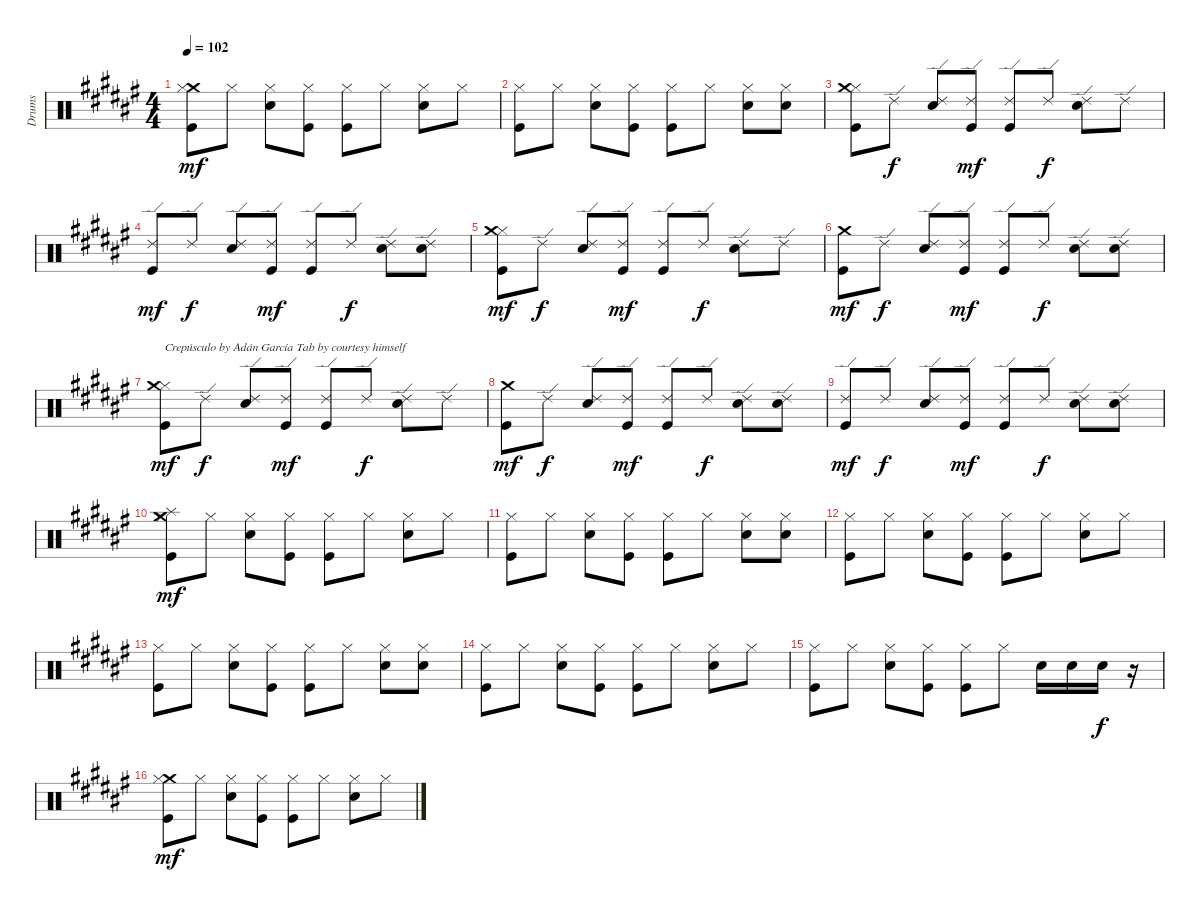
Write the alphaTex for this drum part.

\track ("Drums" "Drums") {instrument percussion}
\staff {score}
\articulation defaults
\ts (4 4)
\tempo 102
\clef neutral
\ks f#
("Crash medium (hit)" "Kick (hit)" "Hi-Hat (closed)").8{dy mf} "Hi-Hat (closed)".8 ("Electric Snare (hit)" "Hi-Hat (closed)").8 ("Kick (hit)" "Hi-Hat (closed)").8 ("Kick (hit)" "Hi-Hat (closed)").8 "Hi-Hat (closed)".8 ("Electric Snare (hit)" "Hi-Hat (closed)").8 "Hi-Hat (closed)".8 |
("Kick (hit)" "Hi-Hat (closed)").8 "Hi-Hat (closed)".8 ("Electric Snare (hit)" "Hi-Hat (closed)").8 ("Kick (hit)" "Hi-Hat (closed)").8 ("Kick (hit)" "Hi-Hat (closed)").8 "Hi-Hat (closed)".8 ("Electric Snare (hit)" "Hi-Hat (closed)").8 ("Electric Snare (hit)" "Hi-Hat (closed)").8 |
("Kick (hit)" "Hi-Hat (closed)" "Crash medium (hit)").8 "Ride (edge) 2".8{dy f} ("Electric Snare (hit)" "Ride (edge) 2").8 ("Kick (hit)" "Ride (edge) 2").8{dy mf} ("Kick (hit)" "Ride (edge) 2").8 "Ride (edge) 2".8{dy f} ("Electric Snare (hit)" "Ride (edge) 2").8 "Ride (edge) 2".8 |
("Kick (hit)" "Ride (edge) 2").8{dy mf} "Ride (edge) 2".8{dy f} ("Electric Snare (hit)" "Ride (edge) 2").8 ("Kick (hit)" "Ride (edge) 2").8{dy mf} ("Kick (hit)" "Ride (edge) 2").8 "Ride (edge) 2".8{dy f} ("Electric Snare (hit)" "Ride (edge) 2").8 ("Electric Snare (hit)" "Ride (edge) 2").8 |
("Kick (hit)" "Hi-Hat (closed)" "Crash medium (hit)").8{dy mf} "Ride (edge) 2".8{dy f} ("Electric Snare (hit)" "Ride (edge) 2").8 ("Kick (hit)" "Ride (edge) 2").8{dy mf} ("Kick (hit)" "Ride (edge) 2").8 "Ride (edge) 2".8{dy f} ("Electric Snare (hit)" "Ride (edge) 2").8 "Ride (edge) 2".8 |
("Kick (hit)" "Crash medium (hit)").8{dy mf} "Ride (edge) 2".8{dy f} ("Electric Snare (hit)" "Ride (edge) 2").8 ("Kick (hit)" "Ride (edge) 2").8{dy mf} ("Kick (hit)" "Ride (edge) 2").8 "Ride (edge) 2".8{dy f} ("Electric Snare (hit)" "Ride (edge) 2").8 ("Electric Snare (hit)" "Ride (edge) 2").8 |
("Kick (hit)" "Hi-Hat (closed)" "Crash medium (hit)").8{txt "Crepúsculo by Adán García Tab by courtesy himself" dy mf} "Ride (edge) 2".8{dy f} ("Electric Snare (hit)" "Ride (edge) 2").8 ("Kick (hit)" "Ride (edge) 2").8{dy mf} ("Kick (hit)" "Ride (edge) 2").8 "Ride (edge) 2".8{dy f} ("Electric Snare (hit)" "Ride (edge) 2").8 "Ride (edge) 2".8 |
("Kick (hit)" "Crash medium (hit)").8{dy mf} "Ride (edge) 2".8{dy f} ("Electric Snare (hit)" "Ride (edge) 2").8 ("Kick (hit)" "Ride (edge) 2").8{dy mf} ("Kick (hit)" "Ride (edge) 2").8 "Ride (edge) 2".8{dy f} ("Electric Snare (hit)" "Ride (edge) 2").8 ("Electric Snare (hit)" "Ride (edge) 2").8 |
("Kick (hit)" "Ride (edge) 2").8{dy mf} "Ride (edge) 2".8{dy f} ("Electric Snare (hit)" "Ride (edge) 2").8 ("Kick (hit)" "Ride (edge) 2").8{dy mf} ("Kick (hit)" "Ride (edge) 2").8 "Ride (edge) 2".8{dy f} ("Electric Snare (hit)" "Ride (edge) 2").8 ("Electric Snare (hit)" "Ride (edge) 2").8 |
("Splash (hit)" "Crash medium (hit)" "Kick (hit)" "Hi-Hat (closed)").8{dy mf} "Hi-Hat (closed)".8 ("Electric Snare (hit)" "Hi-Hat (closed)").8 ("Kick (hit)" "Hi-Hat (closed)").8 ("Kick (hit)" "Hi-Hat (closed)").8 "Hi-Hat (closed)".8 ("Electric Snare (hit)" "Hi-Hat (closed)").8 "Hi-Hat (closed)".8 |
("Kick (hit)" "Hi-Hat (closed)").8 "Hi-Hat (closed)".8 ("Electric Snare (hit)" "Hi-Hat (closed)").8 ("Kick (hit)" "Hi-Hat (closed)").8 ("Kick (hit)" "Hi-Hat (closed)").8 "Hi-Hat (closed)".8 ("Electric Snare (hit)" "Hi-Hat (closed)").8 ("Electric Snare (hit)" "Hi-Hat (closed)").8 |
("Kick (hit)" "Hi-Hat (closed)").8 "Hi-Hat (closed)".8 ("Electric Snare (hit)" "Hi-Hat (closed)").8 ("Kick (hit)" "Hi-Hat (closed)").8 ("Kick (hit)" "Hi-Hat (closed)").8 "Hi-Hat (closed)".8 ("Electric Snare (hit)" "Hi-Hat (closed)").8 "Hi-Hat (closed)".8 |
("Kick (hit)" "Hi-Hat (closed)").8 "Hi-Hat (closed)".8 ("Electric Snare (hit)" "Hi-Hat (closed)").8 ("Kick (hit)" "Hi-Hat (closed)").8 ("Kick (hit)" "Hi-Hat (closed)").8 "Hi-Hat (closed)".8 ("Electric Snare (hit)" "Hi-Hat (closed)").8 ("Electric Snare (hit)" "Hi-Hat (closed)").8 |
("Kick (hit)" "Hi-Hat (closed)").8 "Hi-Hat (closed)".8 ("Electric Snare (hit)" "Hi-Hat (closed)").8 ("Kick (hit)" "Hi-Hat (closed)").8 ("Kick (hit)" "Hi-Hat (closed)").8 "Hi-Hat (closed)".8 ("Electric Snare (hit)" "Hi-Hat (closed)").8 "Hi-Hat (closed)".8 |
("Kick (hit)" "Hi-Hat (closed)").8 "Hi-Hat (closed)".8 ("Electric Snare (hit)" "Hi-Hat (closed)").8 ("Kick (hit)" "Hi-Hat (closed)").8 ("Kick (hit)" "Hi-Hat (closed)").8 "Hi-Hat (closed)".8 "Electric Snare (hit)".16 "Electric Snare (hit)".16 "Electric Snare (hit)".16{dy f} r.16 |
("Crash medium (hit)" "Kick (hit)" "Hi-Hat (closed)").8{dy mf} "Hi-Hat (closed)".8 ("Electric Snare (hit)" "Hi-Hat (closed)").8 ("Kick (hit)" "Hi-Hat (closed)").8 ("Kick (hit)" "Hi-Hat (closed)").8 "Hi-Hat (closed)".8 ("Electric Snare (hit)" "Hi-Hat (closed)").8 "Hi-Hat (closed)".8
